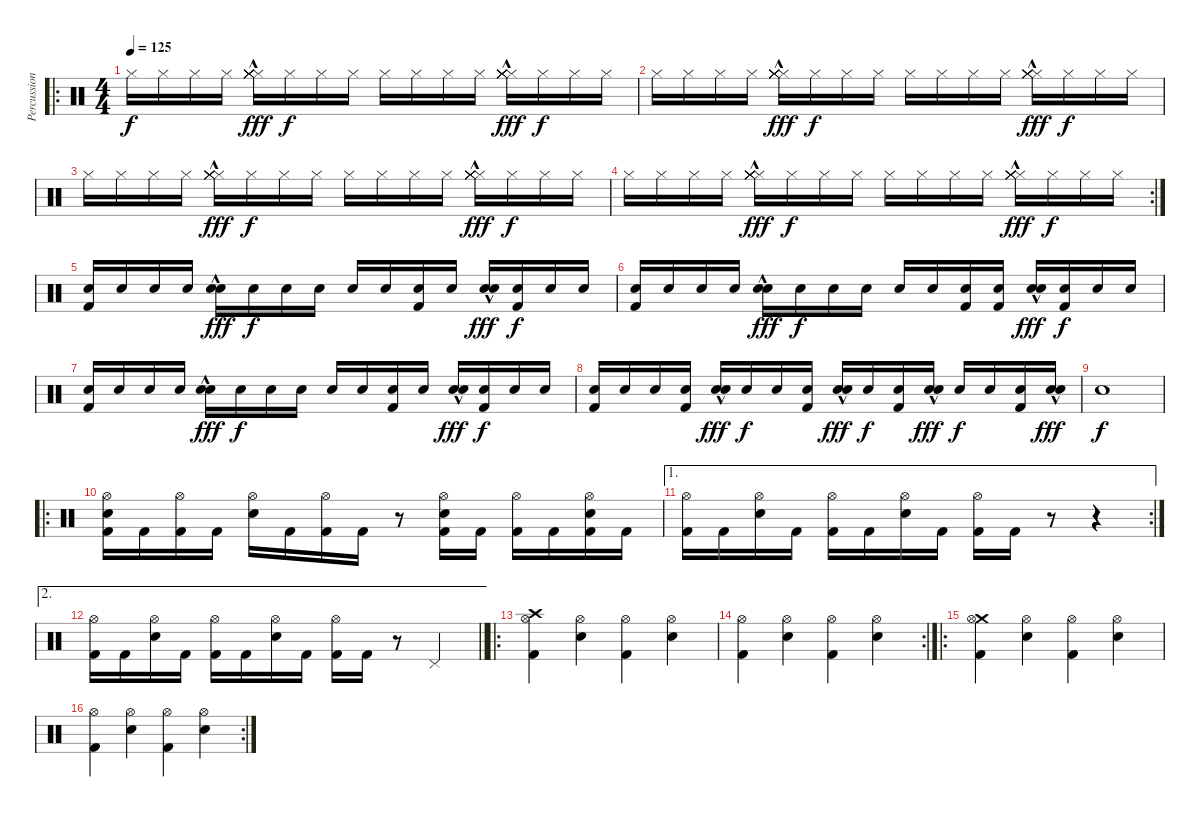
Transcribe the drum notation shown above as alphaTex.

\track ("Percussions" "Percussion") {instrument percussion}
\staff {score}
\articulation defaults
\ro
\ts (4 4)
\tempo 125
\clef neutral
\ks c "Hi-Hat (closed)".16{dy f} "Hi-Hat (closed)".16 "Hi-Hat (closed)".16 "Hi-Hat (closed)".16
("Hi-Hat (closed)" "Hi-Hat (closed)" "Hi-Hat (closed)" "Hi-Hat (closed)" "Hi-Hat (closed)"{hac} "Hi-Hat (closed)").16{dy fff} "Hi-Hat (closed)".16{dy f} "Hi-Hat (closed)".16 "Hi-Hat (closed)".16 "Hi-Hat (closed)".16 "Hi-Hat (closed)".16 "Hi-Hat (closed)".16 "Hi-Hat (closed)".16 ("Hi-Hat (closed)" "Hi-Hat (closed)" "Hi-Hat (closed)" "Hi-Hat (closed)" "Hi-Hat (closed)"{hac} "Hi-Hat (closed)").16{dy fff} "Hi-Hat (closed)".16{dy f} "Hi-Hat (closed)".16 "Hi-Hat (closed)".16 |
"Hi-Hat (closed)".16 "Hi-Hat (closed)".16 "Hi-Hat (closed)".16 "Hi-Hat (closed)".16 ("Hi-Hat (closed)" "Hi-Hat (closed)" "Hi-Hat (closed)" "Hi-Hat (closed)" "Hi-Hat (closed)"{hac} "Hi-Hat (closed)").16{dy fff} "Hi-Hat (closed)".16{dy f} "Hi-Hat (closed)".16 "Hi-Hat (closed)".16 "Hi-Hat (closed)".16 "Hi-Hat (closed)".16 "Hi-Hat (closed)".16 "Hi-Hat (closed)".16 ("Hi-Hat (closed)" "Hi-Hat (closed)" "Hi-Hat (closed)" "Hi-Hat (closed)" "Hi-Hat (closed)"{hac} "Hi-Hat (closed)").16{dy fff} "Hi-Hat (closed)".16{dy f} "Hi-Hat (closed)".16 "Hi-Hat (closed)".16 |
"Hi-Hat (closed)".16 "Hi-Hat (closed)".16 "Hi-Hat (closed)".16 "Hi-Hat (closed)".16 ("Hi-Hat (closed)" "Hi-Hat (closed)" "Hi-Hat (closed)" "Hi-Hat (closed)" "Hi-Hat (closed)"{hac} "Hi-Hat (closed)").16{dy fff} "Hi-Hat (closed)".16{dy f} "Hi-Hat (closed)".16 "Hi-Hat (closed)".16 "Hi-Hat (closed)".16 "Hi-Hat (closed)".16 "Hi-Hat (closed)".16 "Hi-Hat (closed)".16 ("Hi-Hat (closed)" "Hi-Hat (closed)" "Hi-Hat (closed)" "Hi-Hat (closed)" "Hi-Hat (closed)"{hac} "Hi-Hat (closed)").16{dy fff} "Hi-Hat (closed)".16{dy f} "Hi-Hat (closed)".16 "Hi-Hat (closed)".16 |
\rc 2 "Hi-Hat (closed)".16 "Hi-Hat (closed)".16 "Hi-Hat (closed)".16 "Hi-Hat (closed)".16
("Hi-Hat (closed)" "Hi-Hat (closed)" "Hi-Hat (closed)" "Hi-Hat (closed)" "Hi-Hat (closed)"{hac} "Hi-Hat (closed)").16{dy fff} "Hi-Hat (closed)".16{dy f} "Hi-Hat (closed)".16 "Hi-Hat (closed)".16 "Hi-Hat (closed)".16 "Hi-Hat (closed)".16 "Hi-Hat (closed)".16 "Hi-Hat (closed)".16 ("Hi-Hat (closed)" "Hi-Hat (closed)" "Hi-Hat (closed)" "Hi-Hat (closed)" "Hi-Hat (closed)"{hac} "Hi-Hat (closed)").16{dy fff} "Hi-Hat (closed)".16{dy f} "Hi-Hat (closed)".16 "Hi-Hat (closed)".16 |
("Snare (hit) 2" "Kick (hit) 2").16 "Snare (hit) 2".16 "Snare (hit) 2".16 "Snare (hit) 2".16 ("Electric Snare (hit)"{hac} "Snare (hit) 2").16{dy fff} "Snare (hit) 2".16{dy f} "Snare (hit) 2".16 "Snare (hit) 2".16 "Snare (hit) 2".16 "Snare (hit) 2".16 ("Snare (hit) 2" "Kick (hit) 2").16 "Snare (hit) 2".16 ("Electric Snare (hit)"{hac} "Snare (hit) 2").16{dy fff} ("Snare (hit) 2" "Kick (hit) 2").16{dy f} "Snare (hit) 2".16 "Snare (hit) 2".16 |
("Snare (hit) 2" "Kick (hit) 2").16 "Snare (hit) 2".16 "Snare (hit) 2".16 "Snare (hit) 2".16 ("Electric Snare (hit)"{hac} "Snare (hit) 2").16{dy fff} "Snare (hit) 2".16{dy f} "Snare (hit) 2".16 "Snare (hit) 2".16 "Snare (hit) 2".16 "Snare (hit) 2".16 ("Snare (hit) 2" "Kick (hit) 2").16 ("Snare (hit) 2" "Kick (hit) 2").16 ("Electric Snare (hit)"{hac} "Snare (hit) 2").16{dy fff} ("Snare (hit) 2" "Kick (hit) 2").16{dy f} "Snare (hit) 2".16 "Snare (hit) 2".16 |
("Snare (hit) 2" "Kick (hit) 2").16 "Snare (hit) 2".16 "Snare (hit) 2".16 "Snare (hit) 2".16 ("Electric Snare (hit)"{hac} "Snare (hit) 2").16{dy fff} "Snare (hit) 2".16{dy f} "Snare (hit) 2".16 "Snare (hit) 2".16 "Snare (hit) 2".16 "Snare (hit) 2".16 ("Snare (hit) 2" "Kick (hit) 2").16 "Snare (hit) 2".16 ("Electric Snare (hit)"{hac} "Snare (hit) 2").16{dy fff} ("Snare (hit) 2" "Kick (hit) 2").16{dy f} "Snare (hit) 2".16 "Snare (hit) 2".16 |
("Snare (hit) 2" "Kick (hit) 2").16 "Snare (hit) 2".16 "Snare (hit) 2".16 ("Snare (hit) 2" "Kick (hit) 2").16 ("Electric Snare (hit)"{hac} "Snare (hit) 2").16{dy fff} "Snare (hit) 2".16{dy f} "Snare (hit) 2".16 ("Snare (hit) 2" "Kick (hit) 2").16 ("Electric Snare (hit)"{hac} "Snare (hit) 2").16{dy fff} "Snare (hit) 2".16{dy f} ("Snare (hit) 2" "Kick (hit) 2").16 ("Electric Snare (hit)"{hac} "Snare (hit) 2").16{dy fff} "Snare (hit) 2".16{dy f} "Snare (hit) 2".16 ("Snare (hit) 2" "Kick (hit) 2").16 ("Electric Snare (hit)"{hac} "Snare (hit) 2").16{dy fff} |
"Electric Snare (hit)".1{dy f} |
\ro
("Hi-Hat (open)" "Electric Snare (hit)" "Kick (hit) 2").16 "Kick (hit) 2".16 ("Hi-Hat (open)" "Kick (hit) 2").16 "Kick (hit) 2".16 ("Hi-Hat (open)" "Electric Snare (hit)").16 "Kick (hit) 2".16 ("Hi-Hat (open)" "Kick (hit) 2").16 "Kick (hit) 2".16 r.8 ("Hi-Hat (open)" "Electric Snare (hit)" "Kick (hit) 2").16 "Kick (hit) 2".16 ("Hi-Hat (open)" "Kick (hit) 2").16 "Kick (hit) 2".16 ("Hi-Hat (open)" "Electric Snare (hit)" "Kick (hit) 2").16 "Kick (hit) 2".16 |
\ae 1
\rc 2
("Hi-Hat (open)" "Kick (hit) 2").16 "Kick (hit) 2".16 ("Hi-Hat (open)" "Electric Snare (hit)").16 "Kick (hit) 2".16 ("Hi-Hat (open)" "Kick (hit) 2").16 "Kick (hit) 2".16 ("Hi-Hat (open)" "Electric Snare (hit)").16 "Kick (hit) 2".16 ("Hi-Hat (open)" "Kick (hit) 2").16 "Kick (hit) 2".16 r.8 r.4 |
\ae 2
\barLineRight lightlight
("Hi-Hat (open)" "Kick (hit) 2").16 "Kick (hit) 2".16 ("Hi-Hat (open)" "Electric Snare (hit)").16 "Kick (hit) 2".16 ("Hi-Hat (open)" "Kick (hit) 2").16 "Kick (hit) 2".16 ("Hi-Hat (open)" "Electric Snare (hit)").16 "Kick (hit) 2".16 ("Hi-Hat (open)" "Kick (hit) 2").16 "Kick (hit) 2".16 r.8 "Pedal Hi-Hat (hit)".4 |
\ro
("Crash high (hit)" "Hi-Hat (open)" "Kick (hit) 2").4 ("Hi-Hat (open)" "Electric Snare (hit)").4 ("Hi-Hat (open)" "Kick (hit) 2").4 ("Hi-Hat (open)" "Electric Snare (hit)").4 |
\rc 2
("Hi-Hat (open)" "Kick (hit) 2").4 ("Hi-Hat (open)" "Electric Snare (hit)").4 ("Hi-Hat (open)" "Kick (hit) 2").4 ("Hi-Hat (open)" "Electric Snare (hit)").4 |
\ro
("Crash medium (hit)" "Hi-Hat (open)" "Kick (hit) 2").4 ("Hi-Hat (open)" "Electric Snare (hit)").4 ("Hi-Hat (open)" "Kick (hit) 2").4 ("Hi-Hat (open)" "Electric Snare (hit)").4 |
\rc 2
("Hi-Hat (open)" "Kick (hit) 2").4 ("Hi-Hat (open)" "Electric Snare (hit)").4 ("Hi-Hat (open)" "Kick (hit) 2").4 ("Hi-Hat (open)" "Electric Snare (hit)").4
